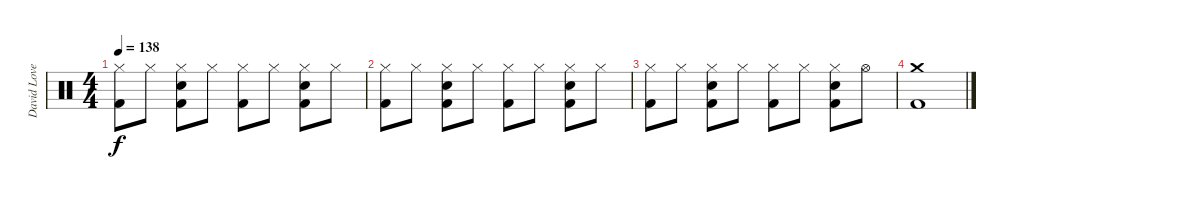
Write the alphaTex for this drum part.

\track ("David Lovering" "David Love") {instrument percussion}
\staff {score}
\articulation defaults
\ts (4 4)
\section ("" "")
\tempo 138
\clef neutral
\ks c
("Hi-Hat (closed)" "Kick (hit) 2").8{dy f} "Hi-Hat (closed)".8 ("Hi-Hat (closed)" "Electric Snare (hit)" "Kick (hit) 2").8 "Hi-Hat (closed)".8 ("Hi-Hat (closed)" "Kick (hit) 2").8 "Hi-Hat (closed)".8 ("Hi-Hat (closed)" "Electric Snare (hit)" "Kick (hit) 2").8 "Hi-Hat (closed)".8 |
("Hi-Hat (closed)" "Kick (hit) 2").8 "Hi-Hat (closed)".8 ("Hi-Hat (closed)" "Electric Snare (hit)" "Kick (hit) 2").8 "Hi-Hat (closed)".8 ("Hi-Hat (closed)" "Kick (hit) 2").8 "Hi-Hat (closed)".8 ("Hi-Hat (closed)" "Electric Snare (hit)" "Kick (hit) 2").8 "Hi-Hat (closed)".8 |
("Hi-Hat (closed)" "Kick (hit) 2").8 "Hi-Hat (closed)".8 ("Hi-Hat (closed)" "Electric Snare (hit)" "Kick (hit) 2").8 "Hi-Hat (closed)".8 ("Hi-Hat (closed)" "Kick (hit) 2").8 "Hi-Hat (closed)".8 ("Hi-Hat (closed)" "Electric Snare (hit)" "Kick (hit) 2").8 "Hi-Hat (open)".8 |
("Crash medium (hit)" "Kick (hit) 2").1
